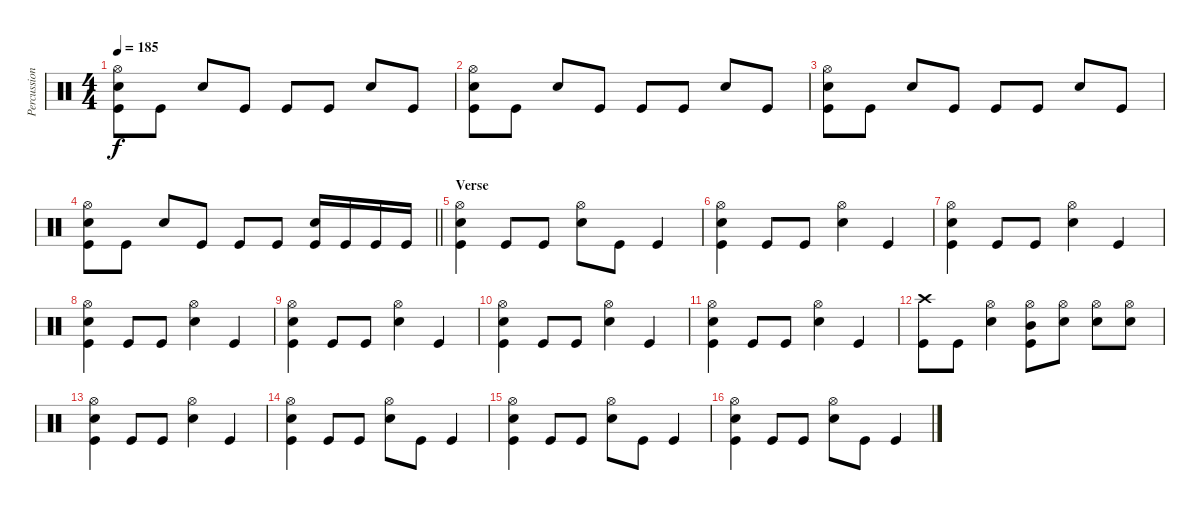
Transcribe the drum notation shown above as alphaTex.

\track ("Percussions" "Percussion") {instrument percussion}
\staff {score}
\articulation defaults
\ts (4 4)
\tempo 185
\clef neutral
\ks c
("Hi-Hat (open)" "Snare (hit) 2" "Kick (hit)").8{dy f} "Kick (hit)".8 "Snare (hit) 2".8 "Kick (hit)".8 "Kick (hit)".8 "Kick (hit)".8 "Snare (hit) 2".8 "Kick (hit)".8 |
("Hi-Hat (open)" "Snare (hit) 2" "Kick (hit)").8 "Kick (hit)".8 "Snare (hit) 2".8 "Kick (hit)".8 "Kick (hit)".8 "Kick (hit)".8 "Snare (hit) 2".8 "Kick (hit)".8 |
("Hi-Hat (open)" "Snare (hit) 2" "Kick (hit)").8 "Kick (hit)".8 "Snare (hit) 2".8 "Kick (hit)".8 "Kick (hit)".8 "Kick (hit)".8 "Snare (hit) 2".8 "Kick (hit)".8 |
\barLineRight lightlight
("Hi-Hat (open)" "Snare (hit) 2" "Kick (hit)").8 "Kick (hit)".8 "Snare (hit) 2".8 "Kick (hit)".8 "Kick (hit)".8 "Kick (hit)".8 ("Snare (hit) 2" "Kick (hit)").16 "Kick (hit)".16 "Kick (hit)".16 "Kick (hit)".16 |
\section ("" "Verse")
("Hi-Hat (open)" "Snare (hit) 2" "Kick (hit)").4 "Kick (hit)".8 "Kick (hit)".8 ("Hi-Hat (open)" "Snare (hit) 2").8 "Kick (hit)".8 "Kick (hit)".4 |
("Hi-Hat (open)" "Snare (hit) 2" "Kick (hit)").4 "Kick (hit)".8 "Kick (hit)".8 ("Hi-Hat (open)" "Snare (hit) 2").4 "Kick (hit)".4 |
("Hi-Hat (open)" "Snare (hit) 2" "Kick (hit)").4 "Kick (hit)".8 "Kick (hit)".8 ("Hi-Hat (open)" "Snare (hit) 2").4 "Kick (hit)".4 |
("Hi-Hat (open)" "Snare (hit) 2" "Kick (hit)").4 "Kick (hit)".8 "Kick (hit)".8 ("Hi-Hat (open)" "Snare (hit) 2").4 "Kick (hit)".4 |
("Hi-Hat (open)" "Snare (hit) 2" "Kick (hit)").4 "Kick (hit)".8 "Kick (hit)".8 ("Hi-Hat (open)" "Snare (hit) 2").4 "Kick (hit)".4 |
("Hi-Hat (open)" "Snare (hit) 2" "Kick (hit)").4 "Kick (hit)".8 "Kick (hit)".8 ("Hi-Hat (open)" "Snare (hit) 2").4 "Kick (hit)".4 |
("Hi-Hat (open)" "Snare (hit) 2" "Kick (hit)").4 "Kick (hit)".8 "Kick (hit)".8 ("Hi-Hat (open)" "Snare (hit) 2").4 "Kick (hit)".4 |
("Crash high (hit)" "Kick (hit)").8 "Kick (hit)".8 ("Hi-Hat (open)" "Snare (hit) 2").4 ("Hi-Hat (open)" "Mid Tom (hit)" "Kick (hit)").8 ("Hi-Hat (open)" "Snare (hit) 2").8 ("Hi-Hat (open)" "Snare (hit) 2").8 ("Hi-Hat (open)" "Snare (hit) 2").8 |
("Hi-Hat (open)" "Snare (hit) 2" "Kick (hit)").4 "Kick (hit)".8 "Kick (hit)".8 ("Hi-Hat (open)" "Snare (hit) 2").4 "Kick (hit)".4 |
("Hi-Hat (open)" "Snare (hit) 2" "Kick (hit)").4 "Kick (hit)".8 "Kick (hit)".8 ("Hi-Hat (open)" "Snare (hit) 2").8 "Kick (hit)".8 "Kick (hit)".4 |
("Hi-Hat (open)" "Snare (hit) 2" "Kick (hit)").4 "Kick (hit)".8 "Kick (hit)".8 ("Hi-Hat (open)" "Snare (hit) 2").8 "Kick (hit)".8 "Kick (hit)".4 |
("Hi-Hat (open)" "Snare (hit) 2" "Kick (hit)").4 "Kick (hit)".8 "Kick (hit)".8 ("Hi-Hat (open)" "Snare (hit) 2").8 "Kick (hit)".8 "Kick (hit)".4
